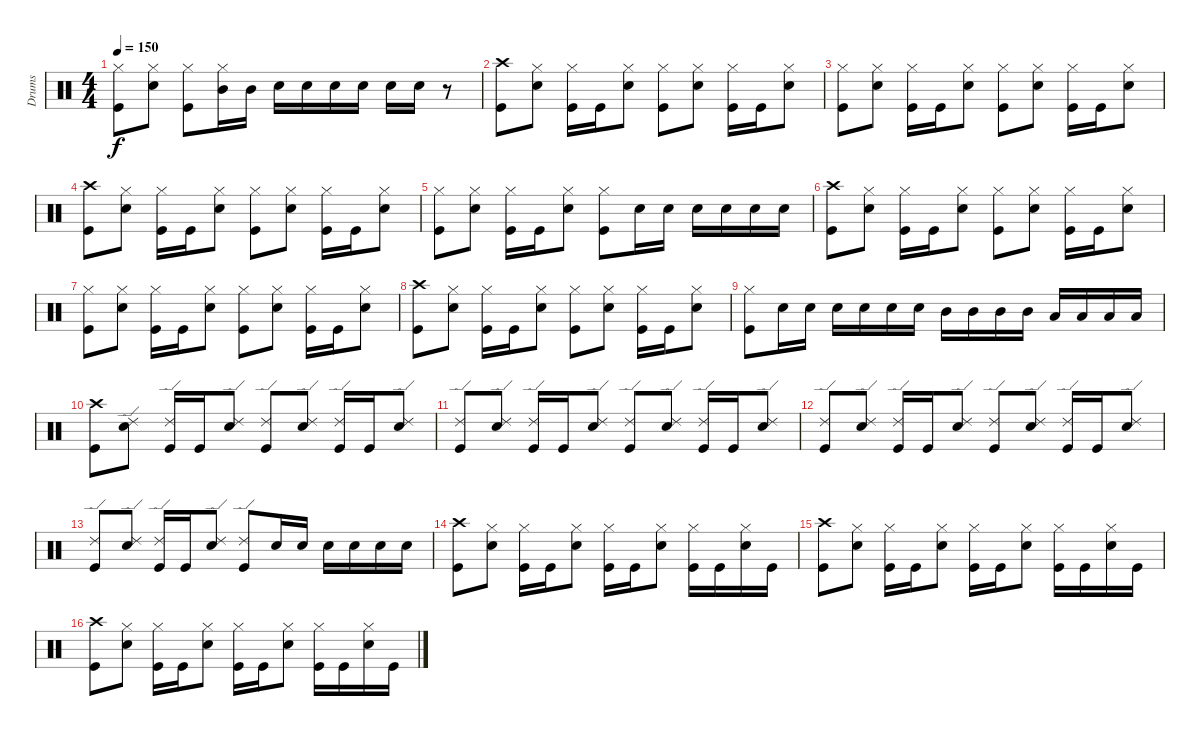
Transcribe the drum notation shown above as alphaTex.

\track ("Drums" "Drums") {instrument percussion}
\staff {score}
\articulation defaults
\ts (4 4)
\tempo 150
\clef neutral
\ks c
("Hi-Hat (closed)" "Kick (hit)").8{dy f} ("Hi-Hat (closed)" "Electric Snare (hit)").8 ("Hi-Hat (closed)" "Kick (hit)").8 ("Hi-Hat (closed)" "Mid Tom (hit)").16 "Mid Tom (hit)".16 "Electric Snare (hit)".16 "Electric Snare (hit)".16 "Electric Snare (hit)".16 "Electric Snare (hit)".16 "Electric Snare (hit)".16 "Electric Snare (hit)".16 r.8 |
("Crash high (hit)" "Kick (hit)").8 ("Hi-Hat (closed)" "Electric Snare (hit)").8 ("Hi-Hat (closed)" "Kick (hit)").16 "Kick (hit)".16 ("Hi-Hat (closed)" "Electric Snare (hit)").8 ("Hi-Hat (closed)" "Kick (hit)").8 ("Hi-Hat (closed)" "Electric Snare (hit)").8 ("Hi-Hat (closed)" "Kick (hit)").16 "Kick (hit)".16 ("Hi-Hat (closed)" "Electric Snare (hit)").8 |
("Hi-Hat (closed)" "Kick (hit)").8 ("Hi-Hat (closed)" "Electric Snare (hit)").8 ("Hi-Hat (closed)" "Kick (hit)").16 "Kick (hit)".16 ("Hi-Hat (closed)" "Electric Snare (hit)").8 ("Hi-Hat (closed)" "Kick (hit)").8 ("Hi-Hat (closed)" "Electric Snare (hit)").8 ("Hi-Hat (closed)" "Kick (hit)").16 "Kick (hit)".16 ("Hi-Hat (closed)" "Electric Snare (hit)").8 |
("Crash high (hit)" "Kick (hit)").8 ("Hi-Hat (closed)" "Electric Snare (hit)").8 ("Hi-Hat (closed)" "Kick (hit)").16 "Kick (hit)".16 ("Hi-Hat (closed)" "Electric Snare (hit)").8 ("Hi-Hat (closed)" "Kick (hit)").8 ("Hi-Hat (closed)" "Electric Snare (hit)").8 ("Hi-Hat (closed)" "Kick (hit)").16 "Kick (hit)".16 ("Hi-Hat (closed)" "Electric Snare (hit)").8 |
("Hi-Hat (closed)" "Kick (hit)").8 ("Hi-Hat (closed)" "Electric Snare (hit)").8 ("Hi-Hat (closed)" "Kick (hit)").16 "Kick (hit)".16 ("Hi-Hat (closed)" "Electric Snare (hit)").8 ("Hi-Hat (closed)" "Kick (hit)").8 "Electric Snare (hit)".16 "Electric Snare (hit)".16 "Electric Snare (hit)".16 "Electric Snare (hit)".16 "Electric Snare (hit)".16 "Electric Snare (hit)".16 |
("Crash high (hit)" "Kick (hit)").8 ("Hi-Hat (closed)" "Electric Snare (hit)").8 ("Hi-Hat (closed)" "Kick (hit)").16 "Kick (hit)".16 ("Hi-Hat (closed)" "Electric Snare (hit)").8 ("Hi-Hat (closed)" "Kick (hit)").8 ("Hi-Hat (closed)" "Electric Snare (hit)").8 ("Hi-Hat (closed)" "Kick (hit)").16 "Kick (hit)".16 ("Hi-Hat (closed)" "Electric Snare (hit)").8 |
("Hi-Hat (closed)" "Kick (hit)").8 ("Hi-Hat (closed)" "Electric Snare (hit)").8 ("Hi-Hat (closed)" "Kick (hit)").16 "Kick (hit)".16 ("Hi-Hat (closed)" "Electric Snare (hit)").8 ("Hi-Hat (closed)" "Kick (hit)").8 ("Hi-Hat (closed)" "Electric Snare (hit)").8 ("Hi-Hat (closed)" "Kick (hit)").16 "Kick (hit)".16 ("Hi-Hat (closed)" "Electric Snare (hit)").8 |
("Crash high (hit)" "Kick (hit)").8 ("Hi-Hat (closed)" "Electric Snare (hit)").8 ("Hi-Hat (closed)" "Kick (hit)").16 "Kick (hit)".16 ("Hi-Hat (closed)" "Electric Snare (hit)").8 ("Hi-Hat (closed)" "Kick (hit)").8 ("Hi-Hat (closed)" "Electric Snare (hit)").8 ("Hi-Hat (closed)" "Kick (hit)").16 "Kick (hit)".16 ("Hi-Hat (closed)" "Electric Snare (hit)").8 |
("Hi-Hat (closed)" "Kick (hit)").8 "Electric Snare (hit)".16 "Electric Snare (hit)".16 "Electric Snare (hit)".16 "Electric Snare (hit)".16 "Electric Snare (hit)".16 "Electric Snare (hit)".16 "Mid Tom (hit)".16 "Mid Tom (hit)".16 "Mid Tom (hit)".16 "Mid Tom (hit)".16 "Low Tom (hit)".16 "Low Tom (hit)".16 "Low Tom (hit)".16 "Low Tom (hit)".16 |
("Crash high (hit)" "Kick (hit)").8 ("Ride (edge) 2" "Electric Snare (hit)").8 ("Ride (edge) 2" "Kick (hit)").16 "Kick (hit)".16 ("Ride (edge) 2" "Electric Snare (hit)").8 ("Ride (edge) 2" "Kick (hit)").8 ("Ride (edge) 2" "Electric Snare (hit)").8 ("Ride (edge) 2" "Kick (hit)").16 "Kick (hit)".16 ("Ride (edge) 2" "Electric Snare (hit)").8 |
("Ride (edge) 2" "Kick (hit)").8 ("Ride (edge) 2" "Electric Snare (hit)").8 ("Ride (edge) 2" "Kick (hit)").16 "Kick (hit)".16 ("Ride (edge) 2" "Electric Snare (hit)").8 ("Ride (edge) 2" "Kick (hit)").8 ("Ride (edge) 2" "Electric Snare (hit)").8 ("Ride (edge) 2" "Kick (hit)").16 "Kick (hit)".16 ("Ride (edge) 2" "Electric Snare (hit)").8 |
("Ride (edge) 2" "Kick (hit)").8 ("Ride (edge) 2" "Electric Snare (hit)").8 ("Ride (edge) 2" "Kick (hit)").16 "Kick (hit)".16 ("Ride (edge) 2" "Electric Snare (hit)").8 ("Ride (edge) 2" "Kick (hit)").8 ("Ride (edge) 2" "Electric Snare (hit)").8 ("Ride (edge) 2" "Kick (hit)").16 "Kick (hit)".16 ("Ride (edge) 2" "Electric Snare (hit)").8 |
("Ride (edge) 2" "Kick (hit)").8 ("Ride (edge) 2" "Electric Snare (hit)").8 ("Ride (edge) 2" "Kick (hit)").16 "Kick (hit)".16 ("Ride (edge) 2" "Electric Snare (hit)").8 ("Ride (edge) 2" "Kick (hit)").8 "Electric Snare (hit)".16 "Electric Snare (hit)".16 "Electric Snare (hit)".16 "Electric Snare (hit)".16 "Electric Snare (hit)".16 "Electric Snare (hit)".16 |
("Crash high (hit)" "Kick (hit)").8 ("Hi-Hat (closed)" "Electric Snare (hit)").8 ("Hi-Hat (closed)" "Kick (hit)").16 "Kick (hit)".16 ("Hi-Hat (closed)" "Electric Snare (hit)").8 ("Hi-Hat (closed)" "Kick (hit)").16 "Kick (hit)".16 ("Hi-Hat (closed)" "Electric Snare (hit)").8 ("Hi-Hat (closed)" "Kick (hit)").16 "Kick (hit)".16 ("Hi-Hat (closed)" "Electric Snare (hit)").16 "Kick (hit)".16 |
("Crash high (hit)" "Kick (hit)").8 ("Hi-Hat (closed)" "Electric Snare (hit)").8 ("Hi-Hat (closed)" "Kick (hit)").16 "Kick (hit)".16 ("Hi-Hat (closed)" "Electric Snare (hit)").8 ("Hi-Hat (closed)" "Kick (hit)").16 "Kick (hit)".16 ("Hi-Hat (closed)" "Electric Snare (hit)").8 ("Hi-Hat (closed)" "Kick (hit)").16 "Kick (hit)".16 ("Hi-Hat (closed)" "Electric Snare (hit)").16 "Kick (hit)".16 |
("Crash high (hit)" "Kick (hit)").8 ("Hi-Hat (closed)" "Electric Snare (hit)").8 ("Hi-Hat (closed)" "Kick (hit)").16 "Kick (hit)".16 ("Hi-Hat (closed)" "Electric Snare (hit)").8 ("Hi-Hat (closed)" "Kick (hit)").16 "Kick (hit)".16 ("Hi-Hat (closed)" "Electric Snare (hit)").8 ("Hi-Hat (closed)" "Kick (hit)").16 "Kick (hit)".16 ("Hi-Hat (closed)" "Electric Snare (hit)").16 "Kick (hit)".16
